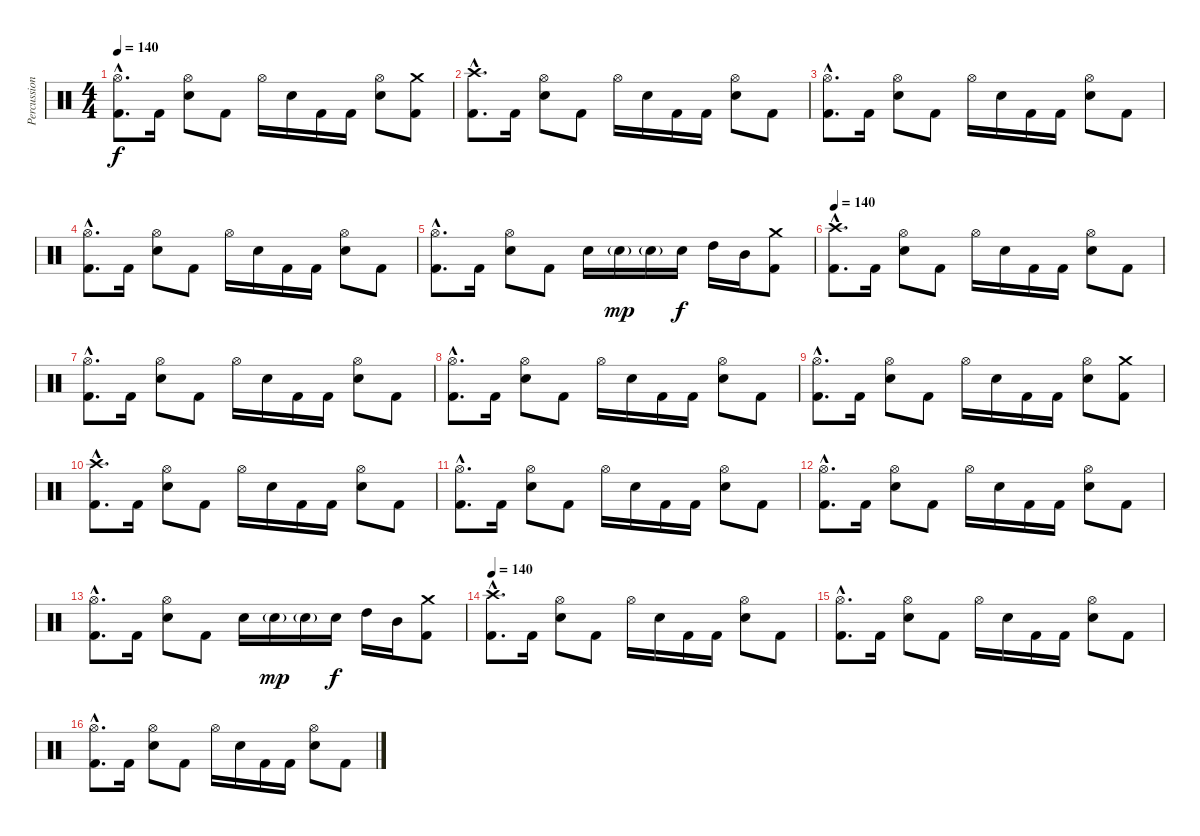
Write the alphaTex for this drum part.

\track ("Percussions" "Percussion") {instrument percussion}
\staff {score}
\articulation defaults
\ts (4 4)
\tempo 140
\clef neutral
\ks c
("Hi-Hat (open)"{hac} "Kick (hit) 2"{hac}).8{d dy f} "Kick (hit) 2".16 ("Hi-Hat (open)" "Electric Snare (hit)").8 "Kick (hit) 2".8 "Hi-Hat (open)".16 "Electric Snare (hit)".16 "Kick (hit) 2".16 "Kick (hit) 2".16 ("Hi-Hat (open)" "Electric Snare (hit)").8 ("Crash medium (hit)" "Kick (hit) 2").8 |
("Crash high (hit)"{hac} "Kick (hit) 2"{hac}).8{d} "Kick (hit) 2".16 ("Hi-Hat (open)" "Electric Snare (hit)").8 "Kick (hit) 2".8 "Hi-Hat (open)".16 "Electric Snare (hit)".16 "Kick (hit) 2".16 "Kick (hit) 2".16 ("Hi-Hat (open)" "Electric Snare (hit)").8 "Kick (hit) 2".8 |
("Hi-Hat (open)"{hac} "Kick (hit) 2"{hac}).8{d} "Kick (hit) 2".16 ("Hi-Hat (open)" "Electric Snare (hit)").8 "Kick (hit) 2".8 "Hi-Hat (open)".16 "Electric Snare (hit)".16 "Kick (hit) 2".16 "Kick (hit) 2".16 ("Hi-Hat (open)" "Electric Snare (hit)").8 "Kick (hit) 2".8 |
("Hi-Hat (open)"{hac} "Kick (hit) 2"{hac}).8{d} "Kick (hit) 2".16 ("Hi-Hat (open)" "Electric Snare (hit)").8 "Kick (hit) 2".8 "Hi-Hat (open)".16 "Electric Snare (hit)".16 "Kick (hit) 2".16 "Kick (hit) 2".16 ("Hi-Hat (open)" "Electric Snare (hit)").8 "Kick (hit) 2".8 |
("Hi-Hat (open)"{hac} "Kick (hit) 2"{hac}).8{d} "Kick (hit) 2".16 ("Hi-Hat (open)" "Electric Snare (hit)").8 "Kick (hit) 2".8 "Electric Snare (hit)".16 "Electric Snare (hit)"{g}.16{dy mp} "Electric Snare (hit)"{g}.16 "Electric Snare (hit)".16{dy f} "High Tom (hit)".16 "Mid Tom (hit)".16 ("Crash medium (hit)" "Kick (hit) 2").8 |
\tempo 140
("Crash high (hit)"{hac} "Kick (hit) 2"{hac}).8{d} "Kick (hit) 2".16 ("Hi-Hat (open)" "Electric Snare (hit)").8 "Kick (hit) 2".8 "Hi-Hat (open)".16 "Electric Snare (hit)".16 "Kick (hit) 2".16 "Kick (hit) 2".16 ("Hi-Hat (open)" "Electric Snare (hit)").8 "Kick (hit) 2".8 |
("Hi-Hat (open)"{hac} "Kick (hit) 2"{hac}).8{d} "Kick (hit) 2".16 ("Hi-Hat (open)" "Electric Snare (hit)").8 "Kick (hit) 2".8 "Hi-Hat (open)".16 "Electric Snare (hit)".16 "Kick (hit) 2".16 "Kick (hit) 2".16 ("Hi-Hat (open)" "Electric Snare (hit)").8 "Kick (hit) 2".8 |
("Hi-Hat (open)"{hac} "Kick (hit) 2"{hac}).8{d} "Kick (hit) 2".16 ("Hi-Hat (open)" "Electric Snare (hit)").8 "Kick (hit) 2".8 "Hi-Hat (open)".16 "Electric Snare (hit)".16 "Kick (hit) 2".16 "Kick (hit) 2".16 ("Hi-Hat (open)" "Electric Snare (hit)").8 "Kick (hit) 2".8 |
("Hi-Hat (open)"{hac} "Kick (hit) 2"{hac}).8{d} "Kick (hit) 2".16 ("Hi-Hat (open)" "Electric Snare (hit)").8 "Kick (hit) 2".8 "Hi-Hat (open)".16 "Electric Snare (hit)".16 "Kick (hit) 2".16 "Kick (hit) 2".16 ("Hi-Hat (open)" "Electric Snare (hit)").8 ("Crash medium (hit)" "Kick (hit) 2").8 |
("Crash high (hit)"{hac} "Kick (hit) 2"{hac}).8{d} "Kick (hit) 2".16 ("Hi-Hat (open)" "Electric Snare (hit)").8 "Kick (hit) 2".8 "Hi-Hat (open)".16 "Electric Snare (hit)".16 "Kick (hit) 2".16 "Kick (hit) 2".16 ("Hi-Hat (open)" "Electric Snare (hit)").8 "Kick (hit) 2".8 |
("Hi-Hat (open)"{hac} "Kick (hit) 2"{hac}).8{d} "Kick (hit) 2".16 ("Hi-Hat (open)" "Electric Snare (hit)").8 "Kick (hit) 2".8 "Hi-Hat (open)".16 "Electric Snare (hit)".16 "Kick (hit) 2".16 "Kick (hit) 2".16 ("Hi-Hat (open)" "Electric Snare (hit)").8 "Kick (hit) 2".8 |
("Hi-Hat (open)"{hac} "Kick (hit) 2"{hac}).8{d} "Kick (hit) 2".16 ("Hi-Hat (open)" "Electric Snare (hit)").8 "Kick (hit) 2".8 "Hi-Hat (open)".16 "Electric Snare (hit)".16 "Kick (hit) 2".16 "Kick (hit) 2".16 ("Hi-Hat (open)" "Electric Snare (hit)").8 "Kick (hit) 2".8 |
("Hi-Hat (open)"{hac} "Kick (hit) 2"{hac}).8{d} "Kick (hit) 2".16 ("Hi-Hat (open)" "Electric Snare (hit)").8 "Kick (hit) 2".8 "Electric Snare (hit)".16 "Electric Snare (hit)"{g}.16{dy mp} "Electric Snare (hit)"{g}.16 "Electric Snare (hit)".16{dy f} "High Tom (hit)".16 "Mid Tom (hit)".16 ("Crash medium (hit)" "Kick (hit) 2").8 |
\tempo 140
("Crash high (hit)"{hac} "Kick (hit) 2"{hac}).8{d} "Kick (hit) 2".16 ("Hi-Hat (open)" "Electric Snare (hit)").8 "Kick (hit) 2".8 "Hi-Hat (open)".16 "Electric Snare (hit)".16 "Kick (hit) 2".16 "Kick (hit) 2".16 ("Hi-Hat (open)" "Electric Snare (hit)").8 "Kick (hit) 2".8 |
("Hi-Hat (open)"{hac} "Kick (hit) 2"{hac}).8{d} "Kick (hit) 2".16 ("Hi-Hat (open)" "Electric Snare (hit)").8 "Kick (hit) 2".8 "Hi-Hat (open)".16 "Electric Snare (hit)".16 "Kick (hit) 2".16 "Kick (hit) 2".16 ("Hi-Hat (open)" "Electric Snare (hit)").8 "Kick (hit) 2".8 |
("Hi-Hat (open)"{hac} "Kick (hit) 2"{hac}).8{d} "Kick (hit) 2".16 ("Hi-Hat (open)" "Electric Snare (hit)").8 "Kick (hit) 2".8 "Hi-Hat (open)".16 "Electric Snare (hit)".16 "Kick (hit) 2".16 "Kick (hit) 2".16 ("Hi-Hat (open)" "Electric Snare (hit)").8 "Kick (hit) 2".8
